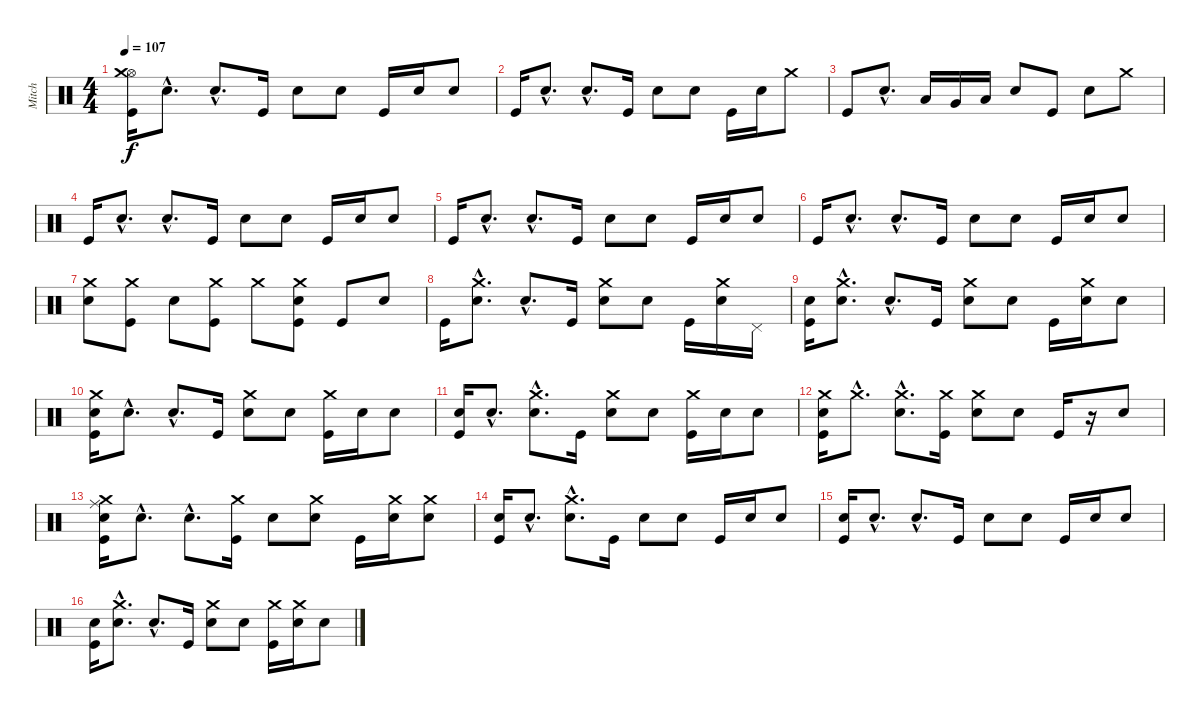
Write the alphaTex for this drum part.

\track ("Mitch" "Mitch") {instrument percussion}
\staff {score}
\articulation defaults
\ts (4 4)
\tempo 107
\clef neutral
\ks c
("Hi-Hat (open)" "Crash medium (hit)" "Kick (hit)").16{dy f} "Electric Snare (hit)"{hac}.8{d} "Electric Snare (hit)"{hac}.8{d} "Kick (hit)".16 "Electric Snare (hit)".8 "Electric Snare (hit)".8 "Kick (hit)".16 "Electric Snare (hit)".16 "Electric Snare (hit)".8 |
"Kick (hit)".16 "Electric Snare (hit)"{hac}.8{d} "Electric Snare (hit)"{hac}.8{d} "Kick (hit)".16 "Electric Snare (hit)".8 "Electric Snare (hit)".8 "Kick (hit)".16 "Electric Snare (hit)".16 "Crash medium (hit)".8 |
"Kick (hit)".8 "Electric Snare (hit)"{hac}.8{d} "Low Tom (hit)".16 "Very Low Tom (hit)".16 "Low Floor Tom (hit)".16 "Electric Snare (hit)".8 "Kick (hit)".8 "Electric Snare (hit)".8 "Crash medium (hit)".8 |
"Kick (hit)".16 "Electric Snare (hit)"{hac}.8{d} "Electric Snare (hit)"{hac}.8{d} "Kick (hit)".16 "Electric Snare (hit)".8 "Electric Snare (hit)".8 "Kick (hit)".16 "Electric Snare (hit)".16 "Electric Snare (hit)".8 |
"Kick (hit)".16 "Electric Snare (hit)"{hac}.8{d} "Electric Snare (hit)"{hac}.8{d} "Kick (hit)".16 "Electric Snare (hit)".8 "Electric Snare (hit)".8 "Kick (hit)".16 "Electric Snare (hit)".16 "Electric Snare (hit)".8 |
"Kick (hit)".16 "Electric Snare (hit)"{hac}.8{d} "Electric Snare (hit)"{hac}.8{d} "Kick (hit)".16 "Electric Snare (hit)".8 "Electric Snare (hit)".8 "Kick (hit)".16 "Electric Snare (hit)".16 "Electric Snare (hit)".8 |
("Electric Snare (hit)" "Crash medium (hit)").8 ("Crash medium (hit)" "Kick (hit)").8 "Electric Snare (hit)".8 ("Crash medium (hit)" "Kick (hit)").8 "Crash medium (hit)".8 ("Electric Snare (hit)" "Crash medium (hit)" "Kick (hit)").8 "Kick (hit)".8 "Electric Snare (hit)".8 |
"Kick (hit)".16 ("Electric Snare (hit)"{hac} "Crash medium (hit)"{hac}).8{d} "Electric Snare (hit)"{hac}.8{d} "Kick (hit)".16 ("Electric Snare (hit)" "Crash medium (hit)").8 "Electric Snare (hit)".8 "Kick (hit)".16 ("Electric Snare (hit)" "Crash medium (hit)").16 "Pedal Hi-Hat (hit)".16 |
("Electric Snare (hit)" "Kick (hit)").16 ("Electric Snare (hit)"{hac} "Crash medium (hit)"{hac}).8{d} "Electric Snare (hit)"{hac}.8{d} "Kick (hit)".16 ("Electric Snare (hit)" "Crash medium (hit)").8 "Electric Snare (hit)".8 "Kick (hit)".16 ("Electric Snare (hit)" "Crash medium (hit)").16 "Electric Snare (hit)".8 |
("Electric Snare (hit)" "Crash medium (hit)" "Kick (hit)").16 "Electric Snare (hit)"{hac}.8{d} "Electric Snare (hit)"{hac}.8{d} "Kick (hit)".16 ("Electric Snare (hit)" "Crash medium (hit)").8 "Electric Snare (hit)".8 ("Crash medium (hit)" "Kick (hit)").16 "Electric Snare (hit)".16 "Electric Snare (hit)".8 |
("Electric Snare (hit)" "Kick (hit)").16 "Electric Snare (hit)"{hac}.8{d} ("Electric Snare (hit)"{hac} "Crash medium (hit)"{hac}).8{d} "Kick (hit)".16 ("Electric Snare (hit)" "Crash medium (hit)").8 "Electric Snare (hit)".8 ("Crash medium (hit)" "Kick (hit)").16 "Electric Snare (hit)".16 "Electric Snare (hit)".8 |
("Electric Snare (hit)" "Crash medium (hit)" "Kick (hit)").16 "Crash medium (hit)"{hac}.8{d} ("Electric Snare (hit)"{hac} "Crash medium (hit)"{hac}).8{d} ("Crash medium (hit)" "Kick (hit)").16 ("Electric Snare (hit)" "Crash medium (hit)").8 "Electric Snare (hit)".8 "Kick (hit)".16 r.16 "Electric Snare (hit)".8 |
("Ride (middle)" "Electric Snare (hit)" "Crash medium (hit)" "Kick (hit)").16 "Electric Snare (hit)"{hac}.8{d} "Electric Snare (hit)"{hac}.8{d} ("Crash medium (hit)" "Kick (hit)").16 "Electric Snare (hit)".8 ("Electric Snare (hit)" "Crash medium (hit)").8 "Kick (hit)".16 ("Electric Snare (hit)" "Crash medium (hit)").16 ("Electric Snare (hit)" "Crash medium (hit)").8 |
("Electric Snare (hit)" "Kick (hit)").16 "Electric Snare (hit)"{hac}.8{d} ("Electric Snare (hit)"{hac} "Crash medium (hit)"{hac}).8{d} "Kick (hit)".16 "Electric Snare (hit)".8 "Electric Snare (hit)".8 "Kick (hit)".16 "Electric Snare (hit)".16 "Electric Snare (hit)".8 |
("Electric Snare (hit)" "Kick (hit)").16 "Electric Snare (hit)"{hac}.8{d} "Electric Snare (hit)"{hac}.8{d} "Kick (hit)".16 "Electric Snare (hit)".8 "Electric Snare (hit)".8 "Kick (hit)".16 "Electric Snare (hit)".16 "Electric Snare (hit)".8 |
("Electric Snare (hit)" "Kick (hit)").16 ("Electric Snare (hit)"{hac} "Crash medium (hit)"{hac}).8{d} "Electric Snare (hit)"{hac}.8{d} "Kick (hit)".16 ("Electric Snare (hit)" "Crash medium (hit)").8 "Electric Snare (hit)".8 ("Crash medium (hit)" "Kick (hit)").16 ("Electric Snare (hit)" "Crash medium (hit)").16 "Electric Snare (hit)".8
